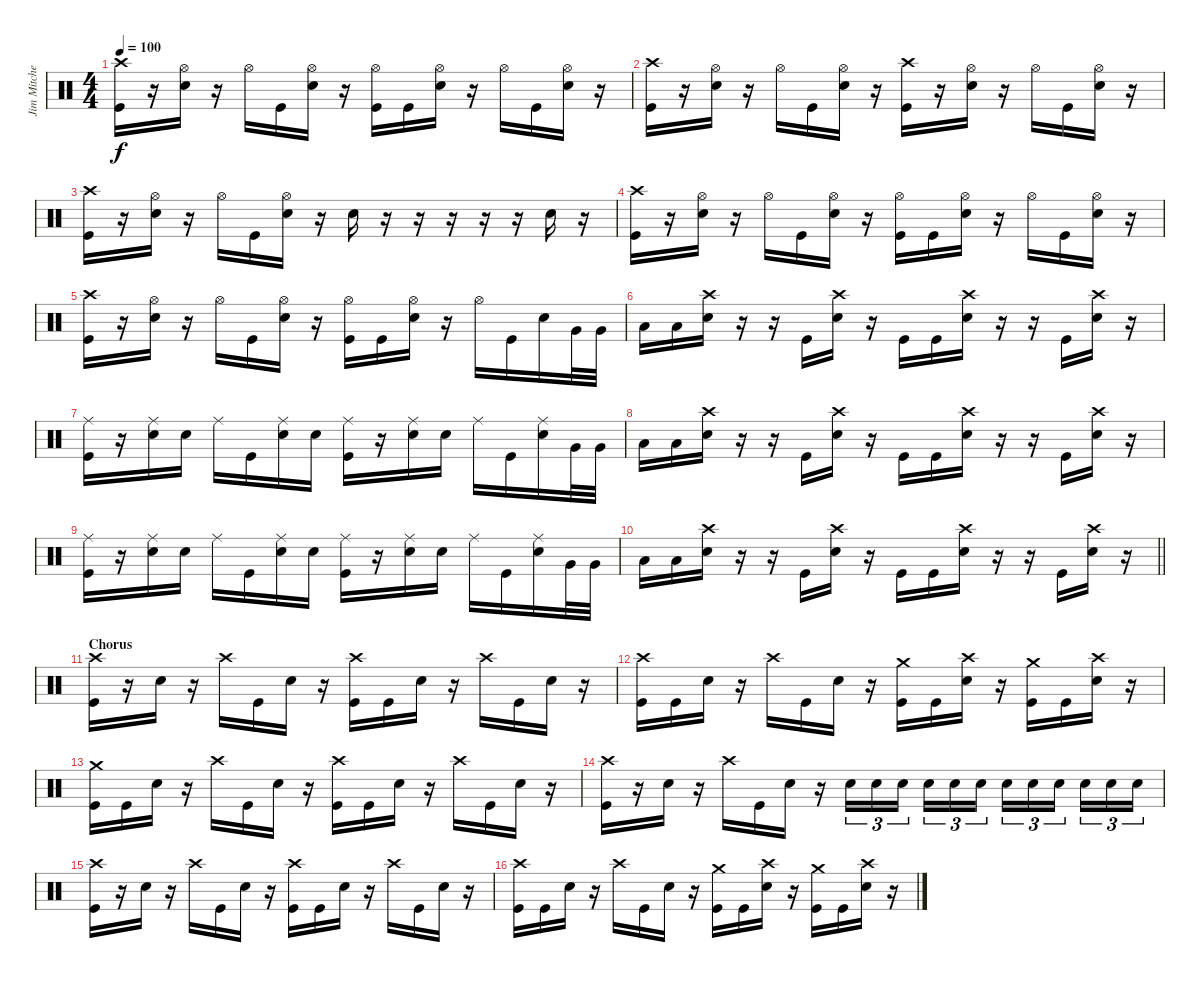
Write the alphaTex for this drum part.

\track ("Jim Mitchell" "Jim Mitche") {instrument percussion}
\staff {score}
\articulation defaults
\ts (4 4)
\tempo 100
\clef neutral
\ks c
("Crash high (hit)" "Kick (hit)").16{dy f} r.16 ("Hi-Hat (open)" "Snare (hit) 2").16 r.16 "Hi-Hat (open)".16 "Kick (hit)".16 ("Hi-Hat (open)" "Snare (hit) 2").16 r.16 ("Hi-Hat (open)" "Kick (hit)").16 "Kick (hit)".16 ("Hi-Hat (open)" "Snare (hit) 2").16 r.16 "Hi-Hat (open)".16 "Kick (hit)".16 ("Hi-Hat (open)" "Snare (hit) 2").16 r.16 |
("Crash high (hit)" "Kick (hit)").16 r.16 ("Hi-Hat (open)" "Snare (hit) 2").16 r.16 "Hi-Hat (open)".16 "Kick (hit)".16 ("Hi-Hat (open)" "Snare (hit) 2").16 r.16 ("Crash high (hit)" "Kick (hit)").16 r.16 ("Hi-Hat (open)" "Snare (hit) 2").16 r.16 "Hi-Hat (open)".16 "Kick (hit)".16 ("Hi-Hat (open)" "Snare (hit) 2").16 r.16 |
("Crash high (hit)" "Kick (hit)").16 r.16 ("Hi-Hat (open)" "Snare (hit) 2").16 r.16 "Hi-Hat (open)".16 "Kick (hit)".16 ("Hi-Hat (open)" "Snare (hit) 2").16 r.16 "Snare (hit) 2".16 r.16 r.16 r.16 r.16 r.16 "Snare (hit) 2".16 r.16 |
("Crash high (hit)" "Kick (hit)").16 r.16 ("Hi-Hat (open)" "Snare (hit) 2").16 r.16 "Hi-Hat (open)".16 "Kick (hit)".16 ("Hi-Hat (open)" "Snare (hit) 2").16 r.16 ("Hi-Hat (open)" "Kick (hit)").16 "Kick (hit)".16 ("Hi-Hat (open)" "Snare (hit) 2").16 r.16 "Hi-Hat (open)".16 "Kick (hit)".16 ("Hi-Hat (open)" "Snare (hit) 2").16 r.16 |
("Crash high (hit)" "Kick (hit)").16 r.16 ("Hi-Hat (open)" "Snare (hit) 2").16 r.16 "Hi-Hat (open)".16 "Kick (hit)".16 ("Hi-Hat (open)" "Snare (hit) 2").16 r.16 ("Hi-Hat (open)" "Kick (hit)").16 "Kick (hit)".16 ("Hi-Hat (open)" "Snare (hit) 2").16 r.16 "Hi-Hat (open)".16 "Kick (hit)".16 "Snare (hit) 2".16 "Very Low Tom (hit)".32 "Very Low Tom (hit)".32 |
"Low Floor Tom (hit)".16 "Low Floor Tom (hit)".16 ("Crash high (hit)" "Snare (hit) 2").16 r.16 r.16 "Kick (hit)".16 ("Crash high (hit)" "Snare (hit) 2").16 r.16 "Kick (hit)".16 "Kick (hit)".16 ("Crash high (hit)" "Snare (hit) 2").16 r.16 r.16 "Kick (hit)".16 ("Crash high (hit)" "Snare (hit) 2").16 r.16 |
("Ride (middle)" "Kick (hit)").16 r.16 ("Ride (middle)" "Snare (hit) 2").16 "Snare (hit) 2".16 "Ride (middle)".16 "Kick (hit)".16 ("Ride (middle)" "Snare (hit) 2").16 "Snare (hit) 2".16 ("Ride (middle)" "Kick (hit)").16 r.16 ("Ride (middle)" "Snare (hit) 2").16 "Snare (hit) 2".16 "Ride (middle)".16 "Kick (hit)".16 ("Ride (middle)" "Snare (hit) 2").16 "Very Low Tom (hit)".32 "Very Low Tom (hit)".32 |
"Low Floor Tom (hit)".16 "Low Floor Tom (hit)".16 ("Crash high (hit)" "Snare (hit) 2").16 r.16 r.16 "Kick (hit)".16 ("Crash high (hit)" "Snare (hit) 2").16 r.16 "Kick (hit)".16 "Kick (hit)".16 ("Crash high (hit)" "Snare (hit) 2").16 r.16 r.16 "Kick (hit)".16 ("Crash high (hit)" "Snare (hit) 2").16 r.16 |
("Ride (middle)" "Kick (hit)").16 r.16 ("Ride (middle)" "Snare (hit) 2").16 "Snare (hit) 2".16 "Ride (middle)".16 "Kick (hit)".16 ("Ride (middle)" "Snare (hit) 2").16 "Snare (hit) 2".16 ("Ride (middle)" "Kick (hit)").16 r.16 ("Ride (middle)" "Snare (hit) 2").16 "Snare (hit) 2".16 "Ride (middle)".16 "Kick (hit)".16 ("Ride (middle)" "Snare (hit) 2").16 "Very Low Tom (hit)".32 "Very Low Tom (hit)".32 |
\barLineRight lightlight "Low Floor Tom (hit)".16 "Low Floor Tom (hit)".16
("Crash high (hit)" "Snare (hit) 2").16 r.16 r.16 "Kick (hit)".16 ("Crash high (hit)" "Snare (hit) 2").16 r.16 "Kick (hit)".16 "Kick (hit)".16 ("Crash high (hit)" "Snare (hit) 2").16 r.16 r.16 "Kick (hit)".16 ("Crash high (hit)" "Snare (hit) 2").16 r.16 |
\section ("" "Chorus")
("Crash high (hit)" "Kick (hit)").16 r.16 "Snare (hit) 2".16 r.16 "Crash high (hit)".16 "Kick (hit)".16 "Snare (hit) 2".16 r.16 ("Crash high (hit)" "Kick (hit)").16 "Kick (hit)".16 "Snare (hit) 2".16 r.16 "Crash high (hit)".16 "Kick (hit)".16 "Snare (hit) 2".16 r.16 |
("Crash high (hit)" "Kick (hit)").16 "Kick (hit)".16 "Snare (hit) 2".16 r.16 "Crash high (hit)".16 "Kick (hit)".16 "Snare (hit) 2".16 r.16 ("Crash medium (hit)" "Kick (hit)").16 "Kick (hit)".16 ("Crash high (hit)" "Snare (hit) 2").16 r.16 ("Crash medium (hit)" "Kick (hit)").16 "Kick (hit)".16 ("Crash high (hit)" "Snare (hit) 2").16 r.16 |
("Crash medium (hit)" "Kick (hit)").16 "Kick (hit)".16 "Snare (hit) 2".16 r.16 "Crash high (hit)".16 "Kick (hit)".16 "Snare (hit) 2".16 r.16 ("Crash high (hit)" "Kick (hit)").16 "Kick (hit)".16 "Snare (hit) 2".16 r.16 "Crash high (hit)".16 "Kick (hit)".16 "Snare (hit) 2".16 r.16 |
("Crash high (hit)" "Kick (hit)").16 r.16 "Snare (hit) 2".16 r.16 "Crash high (hit)".16 "Kick (hit)".16 "Snare (hit) 2".16 r.16 "Snare (hit) 2".16{tu (3 2)} "Snare (hit) 2".16{tu (3 2)} "Snare (hit) 2".16{tu (3 2) beam splitsecondary} "Snare (hit) 2".16{tu (3 2)} "Snare (hit) 2".16{tu (3 2)} "Snare (hit) 2".16{tu (3 2)} "Snare (hit) 2".16{tu (3 2)} "Snare (hit) 2".16{tu (3 2)} "Snare (hit) 2".16{tu (3 2) beam splitsecondary} "Snare (hit) 2".16{tu (3 2)} "Snare (hit) 2".16{tu (3 2)} "Snare (hit) 2".16{tu (3 2)} |
("Crash high (hit)" "Kick (hit)").16 r.16 "Snare (hit) 2".16 r.16 "Crash high (hit)".16 "Kick (hit)".16 "Snare (hit) 2".16 r.16 ("Crash high (hit)" "Kick (hit)").16 "Kick (hit)".16 "Snare (hit) 2".16 r.16 "Crash high (hit)".16 "Kick (hit)".16 "Snare (hit) 2".16 r.16 |
("Crash high (hit)" "Kick (hit)").16 "Kick (hit)".16 "Snare (hit) 2".16 r.16 "Crash high (hit)".16 "Kick (hit)".16 "Snare (hit) 2".16 r.16 ("Crash medium (hit)" "Kick (hit)").16 "Kick (hit)".16 ("Crash high (hit)" "Snare (hit) 2").16 r.16 ("Crash medium (hit)" "Kick (hit)").16 "Kick (hit)".16 ("Crash high (hit)" "Snare (hit) 2").16 r.16
